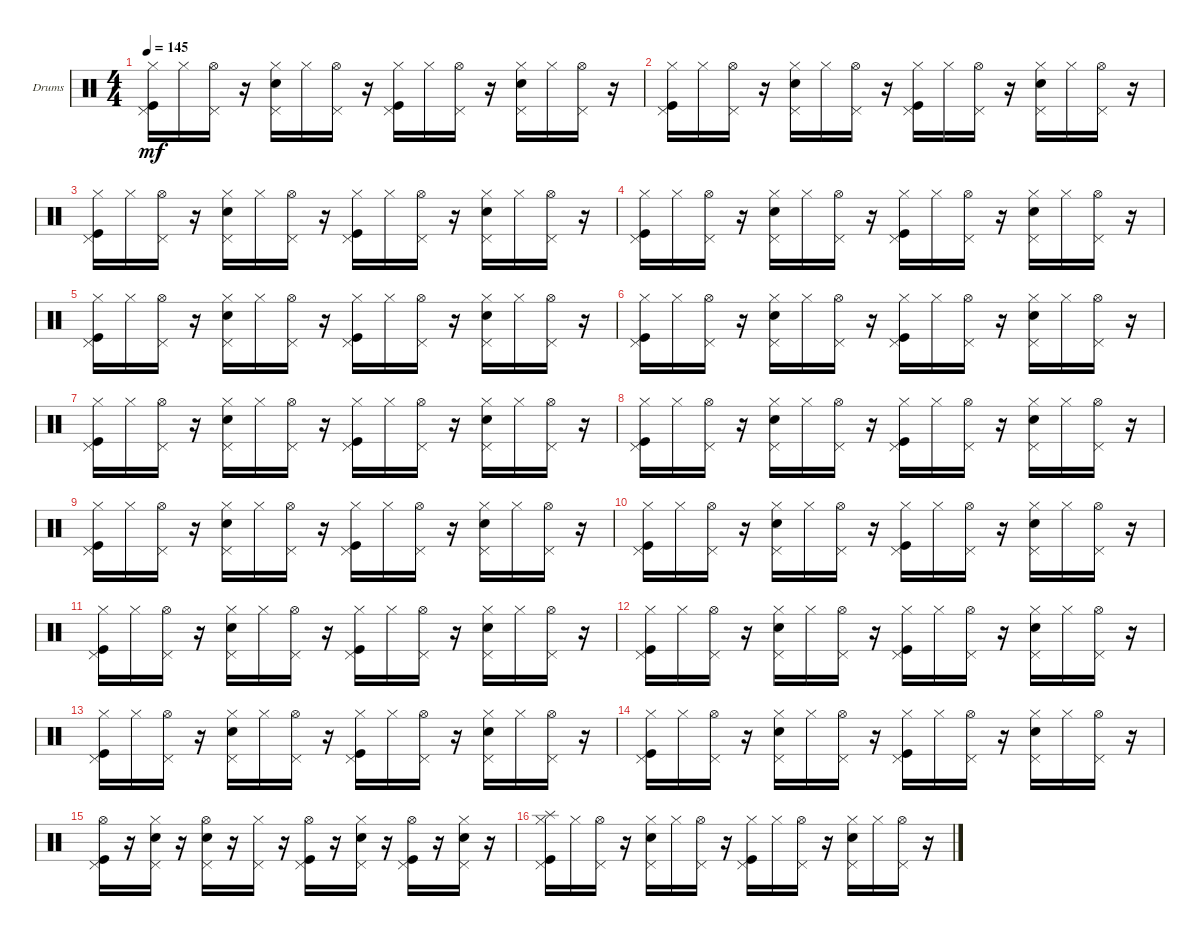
\bracketExtendMode groupsimilarinstruments
\firstSystemTrackNameOrientation horizontal
\otherSystemsTrackNameOrientation horizontal
\track ("Drumkit" "Drums") {solo instrument percussion}
\staff {score}
\articulation defaults
\ts (4 4)
\tempo 145
\clef neutral
\ks c
("Kick (hit)" "Hi-Hat (closed)" "Pedal Hi-Hat (hit)").16{dy mf} "Hi-Hat (closed)".16 ("Hi-Hat (open)" "Pedal Hi-Hat (hit)").16 r.16 ("Snare (hit) 2" "Pedal Hi-Hat (hit)" "Hi-Hat (closed)").16 "Hi-Hat (closed)".16 ("Hi-Hat (open)" "Pedal Hi-Hat (hit)").16 r.16 ("Kick (hit)" "Hi-Hat (closed)" "Pedal Hi-Hat (hit)").16 "Hi-Hat (closed)".16 ("Hi-Hat (open)" "Pedal Hi-Hat (hit)").16 r.16 ("Snare (hit) 2" "Pedal Hi-Hat (hit)" "Hi-Hat (closed)").16 "Hi-Hat (closed)".16 ("Hi-Hat (open)" "Pedal Hi-Hat (hit)").16 r.16 |
("Kick (hit)" "Hi-Hat (closed)" "Pedal Hi-Hat (hit)").16 "Hi-Hat (closed)".16 ("Hi-Hat (open)" "Pedal Hi-Hat (hit)").16 r.16 ("Snare (hit) 2" "Pedal Hi-Hat (hit)" "Hi-Hat (closed)").16 "Hi-Hat (closed)".16 ("Hi-Hat (open)" "Pedal Hi-Hat (hit)").16 r.16 ("Kick (hit)" "Hi-Hat (closed)" "Pedal Hi-Hat (hit)").16 "Hi-Hat (closed)".16 ("Hi-Hat (open)" "Pedal Hi-Hat (hit)").16 r.16 ("Snare (hit) 2" "Pedal Hi-Hat (hit)" "Hi-Hat (closed)").16 "Hi-Hat (closed)".16 ("Hi-Hat (open)" "Pedal Hi-Hat (hit)").16 r.16 |
("Kick (hit)" "Hi-Hat (closed)" "Pedal Hi-Hat (hit)").16 "Hi-Hat (closed)".16 ("Hi-Hat (open)" "Pedal Hi-Hat (hit)").16 r.16 ("Snare (hit) 2" "Pedal Hi-Hat (hit)" "Hi-Hat (closed)").16 "Hi-Hat (closed)".16 ("Hi-Hat (open)" "Pedal Hi-Hat (hit)").16 r.16 ("Kick (hit)" "Hi-Hat (closed)" "Pedal Hi-Hat (hit)").16 "Hi-Hat (closed)".16 ("Hi-Hat (open)" "Pedal Hi-Hat (hit)").16 r.16 ("Snare (hit) 2" "Pedal Hi-Hat (hit)" "Hi-Hat (closed)").16 "Hi-Hat (closed)".16 ("Hi-Hat (open)" "Pedal Hi-Hat (hit)").16 r.16 |
("Kick (hit)" "Hi-Hat (closed)" "Pedal Hi-Hat (hit)").16 "Hi-Hat (closed)".16 ("Pedal Hi-Hat (hit)" "Hi-Hat (open)").16 r.16 ("Snare (hit) 2" "Pedal Hi-Hat (hit)" "Hi-Hat (closed)").16 "Hi-Hat (closed)".16 ("Hi-Hat (open)" "Pedal Hi-Hat (hit)").16 r.16 ("Kick (hit)" "Hi-Hat (closed)" "Pedal Hi-Hat (hit)").16 "Hi-Hat (closed)".16 ("Hi-Hat (open)" "Pedal Hi-Hat (hit)").16 r.16 ("Snare (hit) 2" "Pedal Hi-Hat (hit)" "Hi-Hat (closed)").16 "Hi-Hat (closed)".16 ("Hi-Hat (open)" "Pedal Hi-Hat (hit)").16 r.16 |
("Kick (hit)" "Hi-Hat (closed)" "Pedal Hi-Hat (hit)").16 "Hi-Hat (closed)".16 ("Hi-Hat (open)" "Pedal Hi-Hat (hit)").16 r.16 ("Snare (hit) 2" "Pedal Hi-Hat (hit)" "Hi-Hat (closed)").16 "Hi-Hat (closed)".16 ("Hi-Hat (open)" "Pedal Hi-Hat (hit)").16 r.16 ("Kick (hit)" "Hi-Hat (closed)" "Pedal Hi-Hat (hit)").16 "Hi-Hat (closed)".16 ("Hi-Hat (open)" "Pedal Hi-Hat (hit)").16 r.16 ("Snare (hit) 2" "Pedal Hi-Hat (hit)" "Hi-Hat (closed)").16 "Hi-Hat (closed)".16 ("Hi-Hat (open)" "Pedal Hi-Hat (hit)").16 r.16 |
("Kick (hit)" "Hi-Hat (closed)" "Pedal Hi-Hat (hit)").16 "Hi-Hat (closed)".16 ("Hi-Hat (open)" "Pedal Hi-Hat (hit)").16 r.16 ("Snare (hit) 2" "Pedal Hi-Hat (hit)" "Hi-Hat (closed)").16 "Hi-Hat (closed)".16 ("Hi-Hat (open)" "Pedal Hi-Hat (hit)").16 r.16 ("Kick (hit)" "Hi-Hat (closed)" "Pedal Hi-Hat (hit)").16 "Hi-Hat (closed)".16 ("Hi-Hat (open)" "Pedal Hi-Hat (hit)").16 r.16 ("Snare (hit) 2" "Pedal Hi-Hat (hit)" "Hi-Hat (closed)").16 "Hi-Hat (closed)".16 ("Hi-Hat (open)" "Pedal Hi-Hat (hit)").16 r.16 |
("Kick (hit)" "Hi-Hat (closed)" "Pedal Hi-Hat (hit)").16 "Hi-Hat (closed)".16 ("Hi-Hat (open)" "Pedal Hi-Hat (hit)").16 r.16 ("Snare (hit) 2" "Pedal Hi-Hat (hit)" "Hi-Hat (closed)").16 "Hi-Hat (closed)".16 ("Hi-Hat (open)" "Pedal Hi-Hat (hit)").16 r.16 ("Kick (hit)" "Hi-Hat (closed)" "Pedal Hi-Hat (hit)").16 "Hi-Hat (closed)".16 ("Hi-Hat (open)" "Pedal Hi-Hat (hit)").16 r.16 ("Snare (hit) 2" "Pedal Hi-Hat (hit)" "Hi-Hat (closed)").16 "Hi-Hat (closed)".16 ("Hi-Hat (open)" "Pedal Hi-Hat (hit)").16 r.16 |
("Pedal Hi-Hat (hit)" "Kick (hit)" "Hi-Hat (closed)").16 "Hi-Hat (closed)".16 ("Hi-Hat (open)" "Pedal Hi-Hat (hit)").16 r.16 ("Snare (hit) 2" "Pedal Hi-Hat (hit)" "Hi-Hat (closed)").16 "Hi-Hat (closed)".16 ("Hi-Hat (open)" "Pedal Hi-Hat (hit)").16 r.16 ("Kick (hit)" "Hi-Hat (closed)" "Pedal Hi-Hat (hit)").16 "Hi-Hat (closed)".16 ("Hi-Hat (open)" "Pedal Hi-Hat (hit)").16 r.16 ("Snare (hit) 2" "Pedal Hi-Hat (hit)" "Hi-Hat (closed)").16 "Hi-Hat (closed)".16 ("Hi-Hat (open)" "Pedal Hi-Hat (hit)").16 r.16 |
("Kick (hit)" "Hi-Hat (closed)" "Pedal Hi-Hat (hit)").16 "Hi-Hat (closed)".16 ("Hi-Hat (open)" "Pedal Hi-Hat (hit)").16 r.16 ("Snare (hit) 2" "Pedal Hi-Hat (hit)" "Hi-Hat (closed)").16 "Hi-Hat (closed)".16 ("Hi-Hat (open)" "Pedal Hi-Hat (hit)").16 r.16 ("Kick (hit)" "Hi-Hat (closed)" "Pedal Hi-Hat (hit)").16 "Hi-Hat (closed)".16 ("Hi-Hat (open)" "Pedal Hi-Hat (hit)").16 r.16 ("Snare (hit) 2" "Pedal Hi-Hat (hit)" "Hi-Hat (closed)").16 "Hi-Hat (closed)".16 ("Hi-Hat (open)" "Pedal Hi-Hat (hit)").16 r.16 |
("Kick (hit)" "Hi-Hat (closed)" "Pedal Hi-Hat (hit)").16 "Hi-Hat (closed)".16 ("Hi-Hat (open)" "Pedal Hi-Hat (hit)").16 r.16 ("Snare (hit) 2" "Pedal Hi-Hat (hit)" "Hi-Hat (closed)").16 "Hi-Hat (closed)".16 ("Hi-Hat (open)" "Pedal Hi-Hat (hit)").16 r.16 ("Kick (hit)" "Hi-Hat (closed)" "Pedal Hi-Hat (hit)").16 "Hi-Hat (closed)".16 ("Hi-Hat (open)" "Pedal Hi-Hat (hit)").16 r.16 ("Snare (hit) 2" "Pedal Hi-Hat (hit)" "Hi-Hat (closed)").16 "Hi-Hat (closed)".16 ("Hi-Hat (open)" "Pedal Hi-Hat (hit)").16 r.16 |
("Kick (hit)" "Hi-Hat (closed)" "Pedal Hi-Hat (hit)").16 "Hi-Hat (closed)".16 ("Hi-Hat (open)" "Pedal Hi-Hat (hit)").16 r.16 ("Snare (hit) 2" "Pedal Hi-Hat (hit)" "Hi-Hat (closed)").16 "Hi-Hat (closed)".16 ("Hi-Hat (open)" "Pedal Hi-Hat (hit)").16 r.16 ("Kick (hit)" "Hi-Hat (closed)" "Pedal Hi-Hat (hit)").16 "Hi-Hat (closed)".16 ("Hi-Hat (open)" "Pedal Hi-Hat (hit)").16 r.16 ("Snare (hit) 2" "Pedal Hi-Hat (hit)" "Hi-Hat (closed)").16 "Hi-Hat (closed)".16 ("Hi-Hat (open)" "Pedal Hi-Hat (hit)").16 r.16 |
("Kick (hit)" "Hi-Hat (closed)" "Pedal Hi-Hat (hit)").16 "Hi-Hat (closed)".16 ("Hi-Hat (open)" "Pedal Hi-Hat (hit)").16 r.16 ("Snare (hit) 2" "Pedal Hi-Hat (hit)" "Hi-Hat (closed)").16 "Hi-Hat (closed)".16 ("Hi-Hat (open)" "Pedal Hi-Hat (hit)").16 r.16 ("Kick (hit)" "Hi-Hat (closed)" "Pedal Hi-Hat (hit)").16 "Hi-Hat (closed)".16 ("Hi-Hat (open)" "Pedal Hi-Hat (hit)").16 r.16 ("Snare (hit) 2" "Pedal Hi-Hat (hit)" "Hi-Hat (closed)").16 "Hi-Hat (closed)".16 ("Hi-Hat (open)" "Pedal Hi-Hat (hit)").16 r.16 |
("Kick (hit)" "Hi-Hat (closed)" "Pedal Hi-Hat (hit)").16 "Hi-Hat (closed)".16 ("Hi-Hat (open)" "Pedal Hi-Hat (hit)").16 r.16 ("Snare (hit) 2" "Pedal Hi-Hat (hit)" "Hi-Hat (closed)").16 "Hi-Hat (closed)".16 ("Hi-Hat (open)" "Pedal Hi-Hat (hit)").16 r.16 ("Kick (hit)" "Hi-Hat (closed)" "Pedal Hi-Hat (hit)").16 "Hi-Hat (closed)".16 ("Hi-Hat (open)" "Pedal Hi-Hat (hit)").16 r.16 ("Snare (hit) 2" "Pedal Hi-Hat (hit)" "Hi-Hat (closed)").16 "Hi-Hat (closed)".16 ("Hi-Hat (open)" "Pedal Hi-Hat (hit)").16 r.16 |
("Kick (hit)" "Hi-Hat (closed)" "Pedal Hi-Hat (hit)").16 "Hi-Hat (closed)".16 ("Hi-Hat (open)" "Pedal Hi-Hat (hit)").16 r.16 ("Snare (hit) 2" "Pedal Hi-Hat (hit)" "Hi-Hat (closed)").16 "Hi-Hat (closed)".16 ("Hi-Hat (open)" "Pedal Hi-Hat (hit)").16 r.16 ("Kick (hit)" "Hi-Hat (closed)" "Pedal Hi-Hat (hit)").16 "Hi-Hat (closed)".16 ("Hi-Hat (open)" "Pedal Hi-Hat (hit)").16 r.16 ("Snare (hit) 2" "Pedal Hi-Hat (hit)" "Hi-Hat (closed)").16 "Hi-Hat (closed)".16 ("Hi-Hat (open)" "Pedal Hi-Hat (hit)").16 r.16 |
("Kick (hit)" "Hi-Hat (open)" "Pedal Hi-Hat (hit)").16 r.16 ("Hi-Hat (closed)" "Snare (hit) 2" "Pedal Hi-Hat (hit)").16 r.16 ("Snare (hit) 2" "Hi-Hat (open)" "Pedal Hi-Hat (hit)").16 r.16 ("Hi-Hat (closed)" "Pedal Hi-Hat (hit)").16 r.16 ("Kick (hit)" "Hi-Hat (open)" "Pedal Hi-Hat (hit)").16 r.16 ("Hi-Hat (closed)" "Snare (hit) 2" "Pedal Hi-Hat (hit)").16 r.16 ("Hi-Hat (open)" "Kick (hit)" "Pedal Hi-Hat (hit)").16 r.16 ("Hi-Hat (closed)" "Snare (hit) 2" "Pedal Hi-Hat (hit)").16 r.16 |
("Pedal Hi-Hat (hit)" "Kick (hit)" "Hi-Hat (closed)" "Splash (hit)").16 "Hi-Hat (closed)".16 ("Hi-Hat (open)" "Pedal Hi-Hat (hit)").16 r.16 ("Snare (hit) 2" "Pedal Hi-Hat (hit)" "Hi-Hat (closed)").16 "Hi-Hat (closed)".16 ("Hi-Hat (open)" "Pedal Hi-Hat (hit)").16 r.16 ("Kick (hit)" "Hi-Hat (closed)" "Pedal Hi-Hat (hit)").16 "Hi-Hat (closed)".16 ("Hi-Hat (open)" "Pedal Hi-Hat (hit)").16 r.16 ("Snare (hit) 2" "Pedal Hi-Hat (hit)" "Hi-Hat (closed)").16 "Hi-Hat (closed)".16 ("Hi-Hat (open)" "Pedal Hi-Hat (hit)").16 r.16
